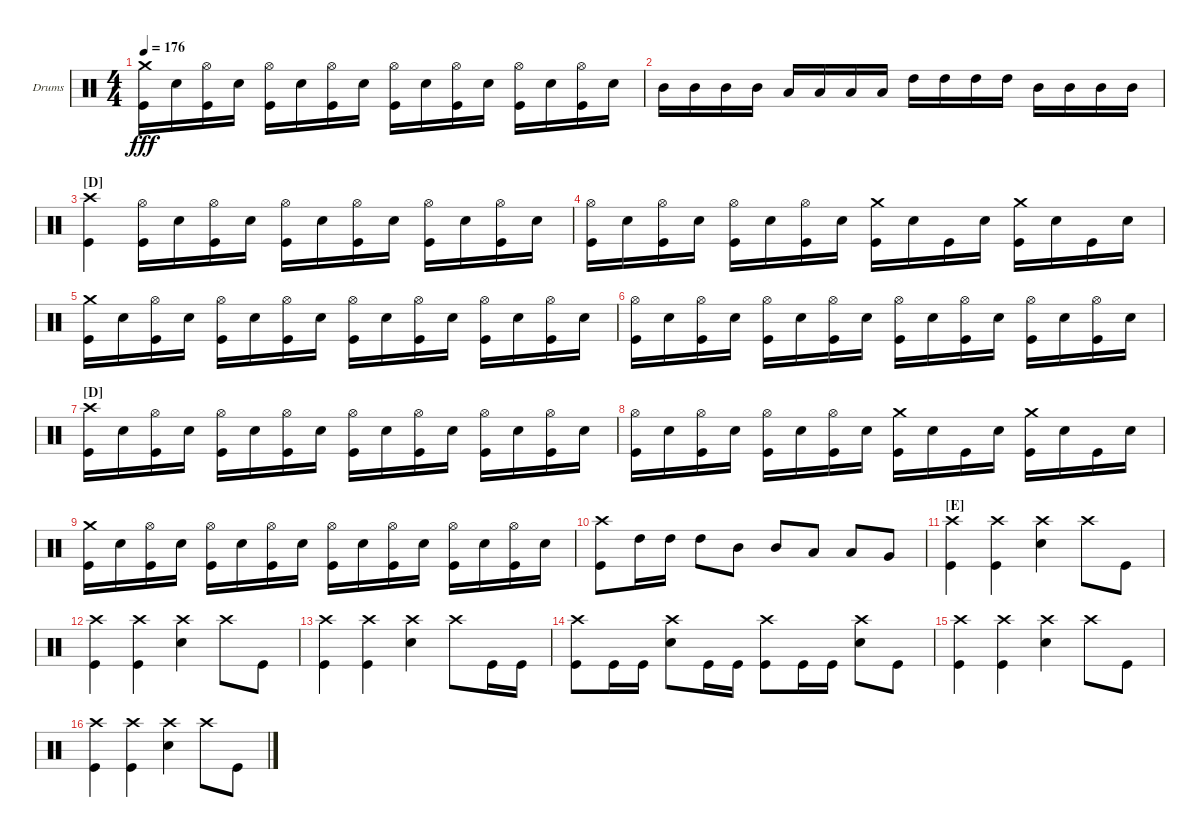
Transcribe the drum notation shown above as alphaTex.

\defaultSystemsLayout 4
\bracketExtendMode groupsimilarinstruments
\firstSystemTrackNameOrientation horizontal
\otherSystemsTrackNameOrientation horizontal
\track ("Drums" "Drums") {instrument percussion}
\staff {score}
\articulation defaults
\ts (4 4)
\tempo 176
\clef neutral
\ks c
("Kick (hit)" "Crash medium (hit)").16{dy fff} "Snare (hit) 2".16 ("Kick (hit)" "Hi-Hat (open)").16 "Snare (hit) 2".16 ("Kick (hit)" "Hi-Hat (open)").16 "Snare (hit) 2".16 ("Kick (hit)" "Hi-Hat (open)").16 "Snare (hit) 2".16 ("Kick (hit)" "Hi-Hat (open)").16 "Snare (hit) 2".16 ("Kick (hit)" "Hi-Hat (open)").16 "Snare (hit) 2".16 ("Kick (hit)" "Hi-Hat (open)").16 "Snare (hit) 2".16 ("Kick (hit)" "Hi-Hat (open)").16 "Snare (hit) 2".16 |
"Mid Tom (hit)".16 "Mid Tom (hit)".16 "Mid Tom (hit)".16 "Mid Tom (hit)".16 "Low Tom (hit)".16 "Low Tom (hit)".16 "Low Tom (hit)".16 "Low Tom (hit)".16 "High Tom (hit)".16 "High Tom (hit)".16 "High Tom (hit)".16 "High Tom (hit)".16 "Mid Tom (hit)".16 "Mid Tom (hit)".16 "Mid Tom (hit)".16 "Mid Tom (hit)".16 |
\section ("D" "")
("Crash high (hit)" "Kick (hit)").4 ("Kick (hit)" "Hi-Hat (open)").16 "Snare (hit) 2".16 ("Kick (hit)" "Hi-Hat (open)").16 "Snare (hit) 2".16 ("Kick (hit)" "Hi-Hat (open)").16 "Snare (hit) 2".16 ("Kick (hit)" "Hi-Hat (open)").16 "Snare (hit) 2".16 ("Kick (hit)" "Hi-Hat (open)").16 "Snare (hit) 2".16 ("Kick (hit)" "Hi-Hat (open)").16 "Snare (hit) 2".16 |
("Kick (hit)" "Hi-Hat (open)").16 "Snare (hit) 2".16 ("Kick (hit)" "Hi-Hat (open)").16 "Snare (hit) 2".16 ("Kick (hit)" "Hi-Hat (open)").16 "Snare (hit) 2".16 ("Kick (hit)" "Hi-Hat (open)").16 "Snare (hit) 2".16 ("Kick (hit)" "Crash medium (hit)").16 "Snare (hit) 2".16 "Kick (hit)".16 "Snare (hit) 2".16 ("Kick (hit)" "Crash medium (hit)").16 "Snare (hit) 2".16 "Kick (hit)".16 "Snare (hit) 2".16 |
("Kick (hit)" "Crash medium (hit)").16 "Snare (hit) 2".16 ("Kick (hit)" "Hi-Hat (open)").16 "Snare (hit) 2".16 ("Kick (hit)" "Hi-Hat (open)").16 "Snare (hit) 2".16 ("Kick (hit)" "Hi-Hat (open)").16 "Snare (hit) 2".16 ("Kick (hit)" "Hi-Hat (open)").16 "Snare (hit) 2".16 ("Kick (hit)" "Hi-Hat (open)").16 "Snare (hit) 2".16 ("Kick (hit)" "Hi-Hat (open)").16 "Snare (hit) 2".16 ("Kick (hit)" "Hi-Hat (open)").16 "Snare (hit) 2".16 |
("Kick (hit)" "Hi-Hat (open)").16 "Snare (hit) 2".16 ("Kick (hit)" "Hi-Hat (open)").16 "Snare (hit) 2".16 ("Kick (hit)" "Hi-Hat (open)").16 "Snare (hit) 2".16 ("Kick (hit)" "Hi-Hat (open)").16 "Snare (hit) 2".16 ("Kick (hit)" "Hi-Hat (open)").16 "Snare (hit) 2".16 ("Kick (hit)" "Hi-Hat (open)").16 "Snare (hit) 2".16 ("Kick (hit)" "Hi-Hat (open)").16 "Snare (hit) 2".16 ("Kick (hit)" "Hi-Hat (open)").16 "Snare (hit) 2".16 |
\section ("D" "")
("Kick (hit)" "Crash high (hit)").16 "Snare (hit) 2".16 ("Kick (hit)" "Hi-Hat (open)").16 "Snare (hit) 2".16 ("Kick (hit)" "Hi-Hat (open)").16 "Snare (hit) 2".16 ("Kick (hit)" "Hi-Hat (open)").16 "Snare (hit) 2".16 ("Kick (hit)" "Hi-Hat (open)").16 "Snare (hit) 2".16 ("Kick (hit)" "Hi-Hat (open)").16 "Snare (hit) 2".16 ("Kick (hit)" "Hi-Hat (open)").16 "Snare (hit) 2".16 ("Kick (hit)" "Hi-Hat (open)").16 "Snare (hit) 2".16 |
("Kick (hit)" "Hi-Hat (open)").16 "Snare (hit) 2".16 ("Kick (hit)" "Hi-Hat (open)").16 "Snare (hit) 2".16 ("Kick (hit)" "Hi-Hat (open)").16 "Snare (hit) 2".16 ("Kick (hit)" "Hi-Hat (open)").16 "Snare (hit) 2".16 ("Kick (hit)" "Crash medium (hit)").16 "Snare (hit) 2".16 "Kick (hit)".16 "Snare (hit) 2".16 ("Kick (hit)" "Crash medium (hit)").16 "Snare (hit) 2".16 "Kick (hit)".16 "Snare (hit) 2".16 |
("Kick (hit)" "Crash medium (hit)").16 "Snare (hit) 2".16 ("Kick (hit)" "Hi-Hat (open)").16 "Snare (hit) 2".16 ("Kick (hit)" "Hi-Hat (open)").16 "Snare (hit) 2".16 ("Kick (hit)" "Hi-Hat (open)").16 "Snare (hit) 2".16 ("Kick (hit)" "Hi-Hat (open)").16 "Snare (hit) 2".16 ("Kick (hit)" "Hi-Hat (open)").16 "Snare (hit) 2".16 ("Kick (hit)" "Hi-Hat (open)").16 "Snare (hit) 2".16 ("Kick (hit)" "Hi-Hat (open)").16 "Snare (hit) 2".16 |
("Kick (hit)" "Crash high (hit)").8 "High Tom (hit)".16 "High Tom (hit)".16 "High Tom (hit)".8 "Mid Tom (hit)".8 "Mid Tom (hit)".8 "Low Tom (hit)".8 "Low Tom (hit)".8 "Very Low Tom (hit)".8 |
\section ("E" "")
("Kick (hit)" "Crash high (hit)").4 ("Kick (hit)" "Crash high (hit)").4 ("Snare (hit) 2" "Crash high (hit)").4 "Crash high (hit)".8 "Kick (hit)".8 |
("Kick (hit)" "Crash high (hit)").4 ("Kick (hit)" "Crash high (hit)").4 ("Snare (hit) 2" "Crash high (hit)").4 "Crash high (hit)".8 "Kick (hit)".8 |
("Kick (hit)" "Crash high (hit)").4 ("Kick (hit)" "Crash high (hit)").4 ("Snare (hit) 2" "Crash high (hit)").4 "Crash high (hit)".8 "Kick (hit)".16 "Kick (hit)".16 |
("Crash high (hit)" "Kick (hit)").8 "Kick (hit)".16 "Kick (hit)".16 ("Snare (hit) 2" "Crash high (hit)").8 "Kick (hit)".16 "Kick (hit)".16 ("Crash high (hit)" "Kick (hit)").8 "Kick (hit)".16 "Kick (hit)".16 ("Snare (hit) 2" "Crash high (hit)").8 "Kick (hit)".8 |
("Kick (hit)" "Crash high (hit)").4 ("Kick (hit)" "Crash high (hit)").4 ("Snare (hit) 2" "Crash high (hit)").4 "Crash high (hit)".8 "Kick (hit)".8 |
("Kick (hit)" "Crash high (hit)").4 ("Kick (hit)" "Crash high (hit)").4 ("Snare (hit) 2" "Crash high (hit)").4 "Crash high (hit)".8 "Kick (hit)".8
